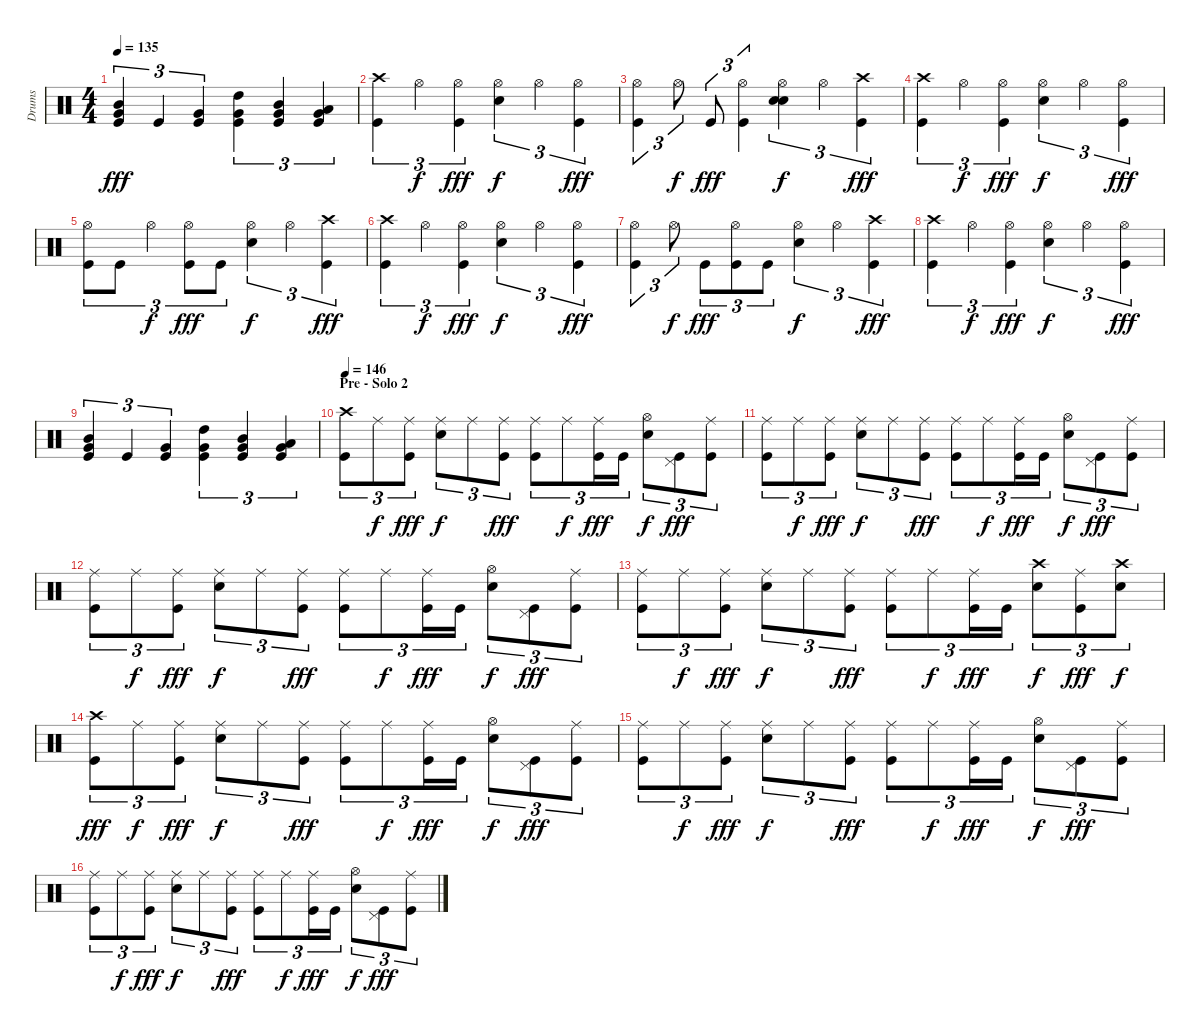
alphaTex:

\track ("Drums" "Drums") {instrument percussion}
\staff {score}
\articulation defaults
\ts (4 4)
\tempo 135
\clef neutral
\ks c
("Mid Tom (hit)" "Very Low Tom (hit)" "Kick (hit)").4{tu (3 2) dy fff} "Kick (hit)".4{tu (3 2)} ("Very Low Tom (hit)" "Kick (hit)").4{tu (3 2)} ("High Tom (hit)" "Very Low Tom (hit)" "Kick (hit)").4{tu (3 2)} ("Mid Tom (hit)" "Very Low Tom (hit)" "Kick (hit)").4{tu (3 2)} ("Low Tom (hit)" "Very Low Tom (hit)" "Kick (hit)").4{tu (3 2)} |
("Crash high (hit)" "Kick (hit)").4{tu (3 2)} "Hi-Hat (open)".4{tu (3 2) dy f} ("Hi-Hat (open)" "Kick (hit)").4{tu (3 2) dy fff} ("Hi-Hat (open)" "Electric Snare (hit)").4{tu (3 2) dy f} "Hi-Hat (open)".4{tu (3 2)} ("Hi-Hat (open)" "Kick (hit)").4{tu (3 2) dy fff} |
("Hi-Hat (open)" "Kick (hit)").4{tu (3 2)} "Hi-Hat (open)".8{tu (3 2) dy f} "Kick (hit)".8{tu (3 2) dy fff} ("Hi-Hat (open)" "Kick (hit)").4{tu (3 2)} ("Hi-Hat (open)" "Electric Snare (hit)" "Electric Snare (hit)").4{tu (3 2) dy f} "Hi-Hat (open)".4{tu (3 2)} ("Crash high (hit)" "Kick (hit)").4{tu (3 2) dy fff} |
("Crash high (hit)" "Kick (hit)").4{tu (3 2)} "Hi-Hat (open)".4{tu (3 2) dy f} ("Hi-Hat (open)" "Kick (hit)").4{tu (3 2) dy fff} ("Hi-Hat (open)" "Electric Snare (hit)").4{tu (3 2) dy f} "Hi-Hat (open)".4{tu (3 2)} ("Hi-Hat (open)" "Kick (hit)").4{tu (3 2) dy fff} |
("Hi-Hat (open)" "Kick (hit)").8{tu (3 2)} "Kick (hit)".8{tu (3 2)} "Hi-Hat (open)".4{tu (3 2) dy f} ("Hi-Hat (open)" "Kick (hit)").8{tu (3 2) dy fff} "Kick (hit)".8{tu (3 2)} ("Hi-Hat (open)" "Electric Snare (hit)").4{tu (3 2) dy f} "Hi-Hat (open)".4{tu (3 2)} ("Crash high (hit)" "Kick (hit)").4{tu (3 2) dy fff} |
("Crash high (hit)" "Kick (hit)").4{tu (3 2)} "Hi-Hat (open)".4{tu (3 2) dy f} ("Hi-Hat (open)" "Kick (hit)").4{tu (3 2) dy fff} ("Hi-Hat (open)" "Electric Snare (hit)").4{tu (3 2) dy f} "Hi-Hat (open)".4{tu (3 2)} ("Hi-Hat (open)" "Kick (hit)").4{tu (3 2) dy fff} |
("Hi-Hat (open)" "Kick (hit)").4{tu (3 2)} "Hi-Hat (open)".8{tu (3 2) dy f} "Kick (hit)".8{tu (3 2) dy fff} ("Hi-Hat (open)" "Kick (hit)").8{tu (3 2)} "Kick (hit)".8{tu (3 2)} ("Hi-Hat (open)" "Electric Snare (hit)").4{tu (3 2) dy f} "Hi-Hat (open)".4{tu (3 2)} ("Crash high (hit)" "Kick (hit)").4{tu (3 2) dy fff} |
("Crash high (hit)" "Kick (hit)").4{tu (3 2)} "Hi-Hat (open)".4{tu (3 2) dy f} ("Hi-Hat (open)" "Kick (hit)").4{tu (3 2) dy fff} ("Hi-Hat (open)" "Electric Snare (hit)").4{tu (3 2) dy f} "Hi-Hat (open)".4{tu (3 2)} ("Hi-Hat (open)" "Kick (hit)").4{tu (3 2) dy fff} |
("Mid Tom (hit)" "Very Low Tom (hit)" "Kick (hit)").4{tu (3 2)} "Kick (hit)".4{tu (3 2)} ("Very Low Tom (hit)" "Kick (hit)").4{tu (3 2)} ("High Tom (hit)" "Very Low Tom (hit)" "Kick (hit)").4{tu (3 2)} ("Mid Tom (hit)" "Very Low Tom (hit)" "Kick (hit)").4{tu (3 2)} ("Low Tom (hit)" "Very Low Tom (hit)" "Kick (hit)").4{tu (3 2)} |
\section ("" "Pre - Solo 2")
\tempo 146
("Crash high (hit)" "Kick (hit)").8{tu (3 2)} "Ride (middle)".8{tu (3 2) dy f} ("Ride (middle)" "Kick (hit)").8{tu (3 2) dy fff} ("Ride (middle)" "Electric Snare (hit)").8{tu (3 2) dy f} "Ride (middle)".8{tu (3 2)} ("Ride (middle)" "Kick (hit)").8{tu (3 2) dy fff} ("Ride (middle)" "Kick (hit)").8{tu (3 2)} "Ride (middle)".8{tu (3 2) dy f} ("Ride (middle)" "Kick (hit)").16{tu (3 2) dy fff} "Kick (hit)".16{tu (3 2)} ("Hi-Hat (open)" "Electric Snare (hit)").8{tu (3 2) dy f} ("Pedal Hi-Hat (hit)" "Kick (hit)").8{tu (3 2) dy fff} ("Ride (middle)" "Kick (hit)").8{tu (3 2)} |
("Ride (middle)" "Kick (hit)").8{tu (3 2)} "Ride (middle)".8{tu (3 2) dy f} ("Ride (middle)" "Kick (hit)").8{tu (3 2) dy fff} ("Ride (middle)" "Electric Snare (hit)").8{tu (3 2) dy f} "Ride (middle)".8{tu (3 2)} ("Ride (middle)" "Kick (hit)").8{tu (3 2) dy fff} ("Ride (middle)" "Kick (hit)").8{tu (3 2)} "Ride (middle)".8{tu (3 2) dy f} ("Ride (middle)" "Kick (hit)").16{tu (3 2) dy fff} "Kick (hit)".16{tu (3 2)} ("Hi-Hat (open)" "Electric Snare (hit)").8{tu (3 2) dy f} ("Pedal Hi-Hat (hit)" "Kick (hit)").8{tu (3 2) dy fff} ("Ride (middle)" "Kick (hit)").8{tu (3 2)} |
("Ride (middle)" "Kick (hit)").8{tu (3 2)} "Ride (middle)".8{tu (3 2) dy f} ("Ride (middle)" "Kick (hit)").8{tu (3 2) dy fff} ("Ride (middle)" "Electric Snare (hit)").8{tu (3 2) dy f} "Ride (middle)".8{tu (3 2)} ("Ride (middle)" "Kick (hit)").8{tu (3 2) dy fff} ("Ride (middle)" "Kick (hit)").8{tu (3 2)} "Ride (middle)".8{tu (3 2) dy f} ("Ride (middle)" "Kick (hit)").16{tu (3 2) dy fff} "Kick (hit)".16{tu (3 2)} ("Hi-Hat (open)" "Electric Snare (hit)").8{tu (3 2) dy f} ("Pedal Hi-Hat (hit)" "Kick (hit)").8{tu (3 2) dy fff} ("Ride (middle)" "Kick (hit)").8{tu (3 2)} |
("Ride (middle)" "Kick (hit)").8{tu (3 2)} "Ride (middle)".8{tu (3 2) dy f} ("Ride (middle)" "Kick (hit)").8{tu (3 2) dy fff} ("Ride (middle)" "Electric Snare (hit)").8{tu (3 2) dy f} "Ride (middle)".8{tu (3 2)} ("Ride (middle)" "Kick (hit)").8{tu (3 2) dy fff} ("Ride (middle)" "Kick (hit)").8{tu (3 2)} "Ride (middle)".8{tu (3 2) dy f} ("Ride (middle)" "Kick (hit)").16{tu (3 2) dy fff} "Kick (hit)".16{tu (3 2)} ("Crash high (hit)" "Electric Snare (hit)").8{tu (3 2) dy f} ("Ride (middle)" "Kick (hit)").8{tu (3 2) dy fff} ("Crash high (hit)" "Electric Snare (hit)").8{tu (3 2) dy f} |
("Crash high (hit)" "Kick (hit)").8{tu (3 2) dy fff} "Ride (middle)".8{tu (3 2) dy f} ("Ride (middle)" "Kick (hit)").8{tu (3 2) dy fff} ("Ride (middle)" "Electric Snare (hit)").8{tu (3 2) dy f} "Ride (middle)".8{tu (3 2)} ("Ride (middle)" "Kick (hit)").8{tu (3 2) dy fff} ("Ride (middle)" "Kick (hit)").8{tu (3 2)} "Ride (middle)".8{tu (3 2) dy f} ("Ride (middle)" "Kick (hit)").16{tu (3 2) dy fff} "Kick (hit)".16{tu (3 2)} ("Hi-Hat (open)" "Electric Snare (hit)").8{tu (3 2) dy f} ("Pedal Hi-Hat (hit)" "Kick (hit)").8{tu (3 2) dy fff} ("Ride (middle)" "Kick (hit)").8{tu (3 2)} |
("Ride (middle)" "Kick (hit)").8{tu (3 2)} "Ride (middle)".8{tu (3 2) dy f} ("Ride (middle)" "Kick (hit)").8{tu (3 2) dy fff} ("Ride (middle)" "Electric Snare (hit)").8{tu (3 2) dy f} "Ride (middle)".8{tu (3 2)} ("Ride (middle)" "Kick (hit)").8{tu (3 2) dy fff} ("Ride (middle)" "Kick (hit)").8{tu (3 2)} "Ride (middle)".8{tu (3 2) dy f} ("Ride (middle)" "Kick (hit)").16{tu (3 2) dy fff} "Kick (hit)".16{tu (3 2)} ("Hi-Hat (open)" "Electric Snare (hit)").8{tu (3 2) dy f} ("Pedal Hi-Hat (hit)" "Kick (hit)").8{tu (3 2) dy fff} ("Ride (middle)" "Kick (hit)").8{tu (3 2)} |
("Ride (middle)" "Kick (hit)").8{tu (3 2)} "Ride (middle)".8{tu (3 2) dy f} ("Ride (middle)" "Kick (hit)").8{tu (3 2) dy fff} ("Ride (middle)" "Electric Snare (hit)").8{tu (3 2) dy f} "Ride (middle)".8{tu (3 2)} ("Ride (middle)" "Kick (hit)").8{tu (3 2) dy fff} ("Ride (middle)" "Kick (hit)").8{tu (3 2)} "Ride (middle)".8{tu (3 2) dy f} ("Ride (middle)" "Kick (hit)").16{tu (3 2) dy fff} "Kick (hit)".16{tu (3 2)} ("Hi-Hat (open)" "Electric Snare (hit)").8{tu (3 2) dy f} ("Pedal Hi-Hat (hit)" "Kick (hit)").8{tu (3 2) dy fff} ("Ride (middle)" "Kick (hit)").8{tu (3 2)}
